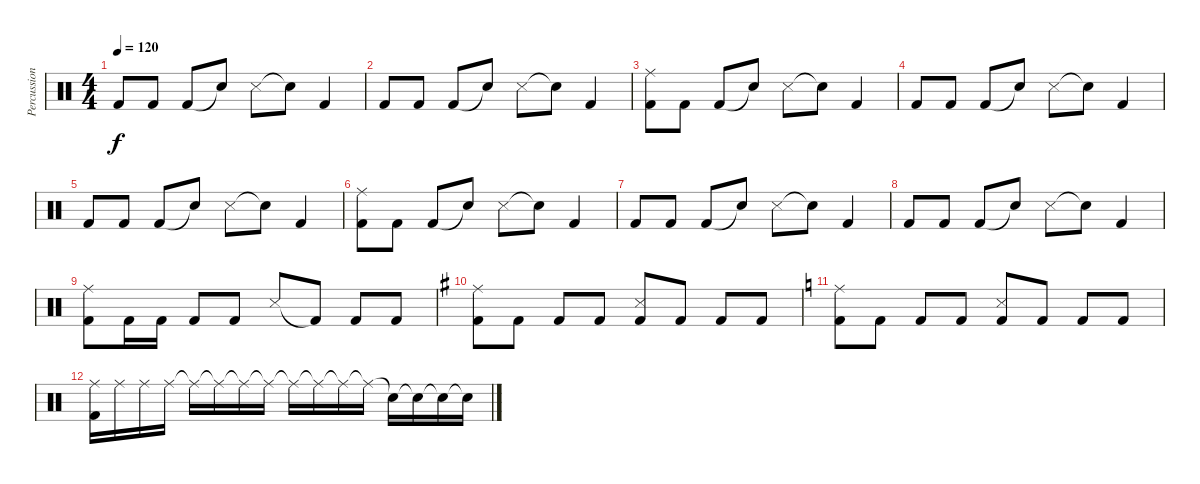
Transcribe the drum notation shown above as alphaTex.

\track ("Percussion" "Percussion") {instrument percussion}
\staff {score}
\articulation defaults
\ts (4 4)
\tempo 120
\clef neutral
\ks c "Kick (hit) 2".8{dy f} "Kick (hit) 2".8 "Kick (hit) 2".8 "Snare (hit)"{t}.8 "Snare (side stick) 3".8 "Snare (hit)"{t}.8 "Kick (hit) 2".4
|
"Kick (hit) 2".8 "Kick (hit) 2".8 "Kick (hit) 2".8 "Snare (hit)"{t}.8 "Snare (side stick) 3".8 "Snare (hit)"{t}.8 "Kick (hit) 2".4 |
("Ride (middle)" "Kick (hit) 2").8 "Kick (hit) 2".8 "Kick (hit) 2".8 "Snare (hit)"{t}.8 "Snare (side stick) 3".8 "Snare (hit)"{t}.8 "Kick (hit) 2".4 |
"Kick (hit) 2".8 "Kick (hit) 2".8 "Kick (hit) 2".8 "Snare (hit)"{t}.8 "Snare (side stick) 3".8 "Snare (hit)"{t}.8 "Kick (hit) 2".4 |
"Kick (hit) 2".8 "Kick (hit) 2".8 "Kick (hit) 2".8 "Snare (hit)"{t}.8 "Snare (side stick) 3".8 "Snare (hit)"{t}.8 "Kick (hit) 2".4 |
("Ride (middle)" "Kick (hit) 2").8 "Kick (hit) 2".8 "Kick (hit) 2".8 "Snare (hit)"{t}.8 "Snare (side stick) 3".8 "Snare (hit)"{t}.8 "Kick (hit) 2".4 |
"Kick (hit) 2".8 "Kick (hit) 2".8 "Kick (hit) 2".8 "Snare (hit)"{t}.8 "Snare (side stick) 3".8 "Snare (hit)"{t}.8 "Kick (hit) 2".4 |
"Kick (hit) 2".8 "Kick (hit) 2".8 "Kick (hit) 2".8 "Snare (hit)"{t}.8 "Snare (side stick) 3".8 "Snare (hit)"{t}.8 "Kick (hit) 2".4 |
("Ride (middle)" "Kick (hit) 2").8 "Kick (hit) 2".16 "Kick (hit) 2".16 "Kick (hit) 2".8 "Kick (hit) 2".8 "Snare (side stick) 3".8 "Kick (hit) 2"{t}.8 "Kick (hit) 2".8 "Kick (hit) 2".8 |
\ks g
("Ride (middle)" "Kick (hit) 2").8 "Kick (hit) 2".8 "Kick (hit) 2".8 "Kick (hit) 2".8 ("Snare (side stick) 3" "Kick (hit) 2").8 "Kick (hit) 2".8 "Kick (hit) 2".8 "Kick (hit) 2".8 |
\ks c
("Ride (middle)" "Kick (hit) 2").8 "Kick (hit) 2".8 "Kick (hit) 2".8 "Kick (hit) 2".8 ("Snare (side stick) 3" "Kick (hit) 2").8 "Kick (hit) 2".8 "Kick (hit) 2".8 "Kick (hit) 2".8 |
("Ride (middle)" "Kick (hit) 2").16 "Ride (middle)".16 "Ride (middle)".16 "Ride (middle)".16 "Ride (middle)"{t}.16 "Ride (middle)"{t}.16 "Ride (middle)"{t}.16 "Ride (middle)"{t}.16 "Ride (middle)"{t}.16 "Ride (middle)"{t}.16 "Ride (middle)"{t}.16 "Ride (middle)"{t}.16 "Snare (hit)"{t}.16 "Snare (hit)"{t}.16 "Snare (hit)"{t}.16 "Snare (hit)"{t}.16
